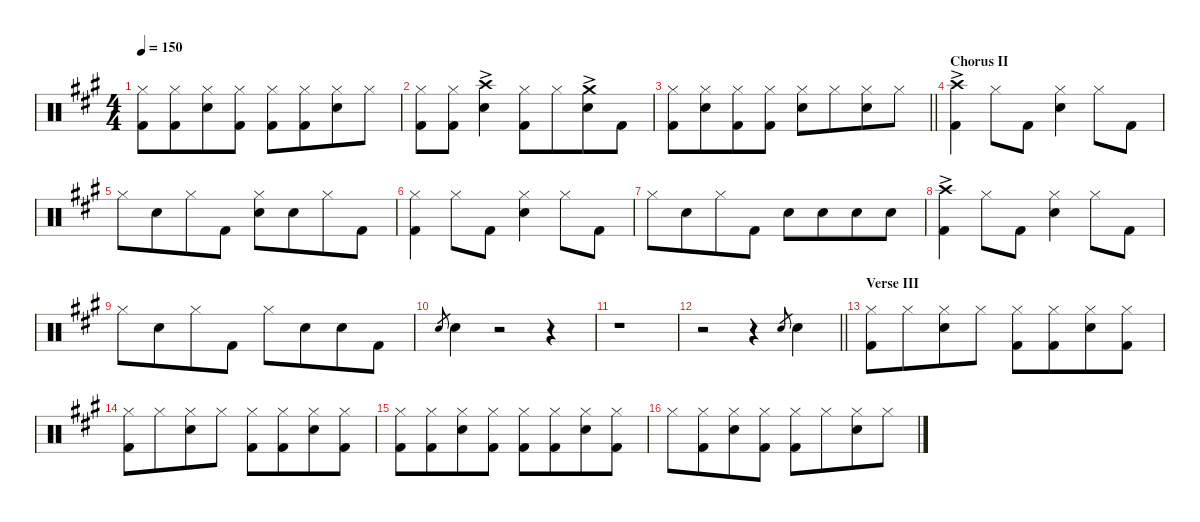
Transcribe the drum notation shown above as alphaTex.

\defaultSystemsLayout 4
\hideDynamics
\bracketExtendMode nobrackets
\singleTrackTrackNamePolicy hidden
\multiTrackTrackNamePolicy hidden
\firstSystemTrackNameMode fullname
\firstSystemTrackNameOrientation horizontal
\otherSystemsTrackNameOrientation horizontal
\track ("Drums" "drm.") {instrument percussion}
\staff {score}
\articulation defaults
\ts (4 4)
\tempo 150
\clef neutral
\ks a
("Hi-Hat (closed)"{acc forcenatural} "Kick (hit) 2"{acc forcenatural}).8{dy f beam Down} ("Hi-Hat (closed)"{acc forcenatural} "Kick (hit) 2"{acc forcenatural}).8{beam Down beam merge} ("Hi-Hat (closed)"{acc forcenatural} "Snare (hit) 2"{acc forcenatural}).8{beam Down} ("Hi-Hat (closed)"{acc forcenatural} "Kick (hit) 2"{acc forcenatural}).8{beam Down} ("Hi-Hat (closed)"{acc forcenatural} "Kick (hit) 2"{acc forcenatural}).8{beam Down} ("Hi-Hat (closed)"{acc forcenatural} "Kick (hit) 2"{acc forcenatural}).8{beam Down beam merge} ("Hi-Hat (closed)"{acc forcenatural} "Snare (hit) 2"{acc forcenatural}).8{beam Down} "Hi-Hat (closed)"{acc forcenatural}.8{beam Down} |
("Hi-Hat (closed)"{acc forcenatural} "Kick (hit) 2"{acc forcenatural}).8{beam Down} ("Hi-Hat (closed)"{acc forcenatural} "Kick (hit) 2"{acc forcenatural}).8{beam Down} ("Crash high (hit)"{ac acc forcenatural} "Snare (hit) 2"{acc forcenatural}).4{beam Down} ("Hi-Hat (closed)"{acc forcenatural} "Kick (hit) 2"{acc forcenatural}).8{beam Down} "Hi-Hat (closed)"{acc forcenatural}.8{beam Down beam merge} ("Crash medium (hit)"{ac acc forcenatural} "Snare (hit) 2"{acc forcenatural}).8{beam Down} "Kick (hit) 2"{acc forcenatural}.8{beam Down} |
\barLineRight lightlight
("Hi-Hat (closed)"{acc forcenatural} "Kick (hit) 2"{acc forcenatural}).8{beam Down} ("Hi-Hat (closed)"{acc forcenatural} "Snare (hit) 2"{acc forcenatural}).8{beam Down beam merge} ("Hi-Hat (closed)"{acc forcenatural} "Kick (hit) 2"{acc forcenatural}).8{beam Down} ("Hi-Hat (closed)"{acc forcenatural} "Kick (hit) 2"{acc forcenatural}).8{beam Down} ("Hi-Hat (closed)"{acc forcenatural} "Snare (hit) 2"{acc forcenatural}).8{beam Down} "Hi-Hat (closed)"{acc forcenatural}.8{beam Down beam merge} ("Hi-Hat (closed)"{acc forcenatural} "Snare (hit) 2"{acc forcenatural}).8{beam Down} "Hi-Hat (closed)"{acc forcenatural}.8{beam Down} |
\section ("" "Chorus II")
("Crash high (hit)"{ac acc forcenatural} "Kick (hit) 2"{acc forcenatural}).4{beam Down} "Hi-Hat (closed)"{acc forcenatural}.8{beam Down} "Kick (hit) 2"{acc forcenatural}.8{beam Down} ("Hi-Hat (closed)"{acc forcenatural} "Snare (hit) 2"{acc forcenatural}).4{beam Down} "Hi-Hat (closed)"{acc forcenatural}.8{beam Down} "Kick (hit) 2"{acc forcenatural}.8{beam Down} |
"Hi-Hat (closed)"{acc forcenatural}.8{beam Down} "Snare (hit) 2"{acc forcenatural}.8{beam Down beam merge} "Hi-Hat (closed)"{acc forcenatural}.8{beam Down} "Kick (hit) 2"{acc forcenatural}.8{beam Down} ("Hi-Hat (closed)"{acc forcenatural} "Snare (hit) 2"{acc forcenatural}).8{beam Down} "Snare (hit) 2"{acc forcenatural}.8{beam Down beam merge} "Hi-Hat (closed)"{acc forcenatural}.8{beam Down} "Kick (hit) 2"{acc forcenatural}.8{beam Down} |
("Hi-Hat (closed)"{acc forcenatural} "Kick (hit) 2"{acc forcenatural}).4{beam Down} "Hi-Hat (closed)"{acc forcenatural}.8{beam Down} "Kick (hit) 2"{acc forcenatural}.8{beam Down} ("Hi-Hat (closed)"{acc forcenatural} "Snare (hit) 2"{acc forcenatural}).4{beam Down} "Hi-Hat (closed)"{acc forcenatural}.8{beam Down} "Kick (hit) 2"{acc forcenatural}.8{beam Down} |
"Hi-Hat (closed)"{acc forcenatural}.8{beam Down} "Snare (hit) 2"{acc forcenatural}.8{beam Down beam merge} "Hi-Hat (closed)"{acc forcenatural}.8{beam Down} "Kick (hit) 2"{acc forcenatural}.8{beam Down} "Snare (hit) 2"{acc forcenatural}.8{beam Down} "Snare (hit) 2"{acc forcenatural}.8{beam Down beam merge} "Snare (hit) 2"{acc forcenatural}.8{beam Down} "Snare (hit) 2"{acc forcenatural}.8{beam Down} |
("Crash high (hit)"{ac acc forcenatural} "Kick (hit) 2"{acc forcenatural}).4{beam Down} "Hi-Hat (closed)"{acc forcenatural}.8{beam Down} "Kick (hit) 2"{acc forcenatural}.8{beam Down} ("Hi-Hat (closed)"{acc forcenatural} "Snare (hit) 2"{acc forcenatural}).4{beam Down} "Hi-Hat (closed)"{acc forcenatural}.8{beam Down} "Kick (hit) 2"{acc forcenatural}.8{beam Down} |
"Hi-Hat (closed)"{acc forcenatural}.8{beam Down} "Snare (hit) 2"{acc forcenatural}.8{beam Down beam merge} "Hi-Hat (closed)"{acc forcenatural}.8{beam Down} "Kick (hit) 2"{acc forcenatural}.8{beam Down} "Hi-Hat (closed)"{acc forcenatural}.8{beam Down} "Snare (hit) 2"{acc forcenatural}.8{beam Down beam merge} "Snare (hit) 2"{acc forcenatural}.8{beam Down} "Kick (hit) 2"{acc forcenatural}.8{beam Down} |
"Snare (hit) 2"{acc forcenatural}.8{gr dy mf beam Up} "Snare (hit) 2"{acc forcenatural}.4{dy f beam Down} r.2{beam Down} r.4{beam Down} |
r.1{beam Down} |
\barLineRight lightlight
r.2{beam Down} r.4{beam Down} "Snare (hit) 2"{acc forcenatural}.8{gr dy mf beam Up} "Snare (hit) 2"{acc forcenatural}.4{dy f beam Down} |
\section ("" "Verse III")
("Hi-Hat (closed)"{acc forcenatural} "Kick (hit) 2"{acc forcenatural}).8{beam Down} "Hi-Hat (closed)"{acc forcenatural}.8{beam Down beam merge} ("Hi-Hat (closed)"{acc forcenatural} "Snare (hit) 2"{acc forcenatural}).8{beam Down} "Hi-Hat (closed)"{acc forcenatural}.8{beam Down} ("Hi-Hat (closed)"{acc forcenatural} "Kick (hit) 2"{acc forcenatural}).8{beam Down} ("Hi-Hat (closed)"{acc forcenatural} "Kick (hit) 2"{acc forcenatural}).8{beam Down beam merge} ("Hi-Hat (closed)"{acc forcenatural} "Snare (hit) 2"{acc forcenatural}).8{beam Down} ("Hi-Hat (closed)"{acc forcenatural} "Kick (hit) 2"{acc forcenatural}).8{beam Down} |
("Hi-Hat (closed)"{acc forcenatural} "Kick (hit) 2"{acc forcenatural}).8{beam Down} "Hi-Hat (closed)"{acc forcenatural}.8{beam Down beam merge} ("Hi-Hat (closed)"{acc forcenatural} "Snare (hit) 2"{acc forcenatural}).8{beam Down} "Hi-Hat (closed)"{acc forcenatural}.8{beam Down} ("Hi-Hat (closed)"{acc forcenatural} "Kick (hit) 2"{acc forcenatural}).8{beam Down} ("Hi-Hat (closed)"{acc forcenatural} "Kick (hit) 2"{acc forcenatural}).8{beam Down beam merge} ("Hi-Hat (closed)"{acc forcenatural} "Snare (hit) 2"{acc forcenatural}).8{beam Down} ("Hi-Hat (closed)"{acc forcenatural} "Kick (hit) 2"{acc forcenatural}).8{beam Down} |
("Hi-Hat (closed)"{acc forcenatural} "Kick (hit) 2"{acc forcenatural}).8{beam Down} ("Hi-Hat (closed)"{acc forcenatural} "Kick (hit) 2"{acc forcenatural}).8{beam Down beam merge} ("Hi-Hat (closed)"{acc forcenatural} "Snare (hit) 2"{acc forcenatural}).8{beam Down} ("Hi-Hat (closed)"{acc forcenatural} "Kick (hit) 2"{acc forcenatural}).8{beam Down} ("Hi-Hat (closed)"{acc forcenatural} "Kick (hit) 2"{acc forcenatural}).8{beam Down} ("Hi-Hat (closed)"{acc forcenatural} "Kick (hit) 2"{acc forcenatural}).8{beam Down beam merge} ("Hi-Hat (closed)"{acc forcenatural} "Snare (hit) 2"{acc forcenatural}).8{beam Down} ("Hi-Hat (closed)"{acc forcenatural} "Kick (hit) 2"{acc forcenatural}).8{beam Down} |
"Hi-Hat (closed)"{acc forcenatural}.8{beam Down} ("Hi-Hat (closed)"{acc forcenatural} "Kick (hit) 2"{acc forcenatural}).8{beam Down beam merge} ("Hi-Hat (closed)"{acc forcenatural} "Snare (hit) 2"{acc forcenatural}).8{beam Down} ("Hi-Hat (closed)"{acc forcenatural} "Kick (hit) 2"{acc forcenatural}).8{beam Down} ("Hi-Hat (closed)"{acc forcenatural} "Kick (hit) 2"{acc forcenatural}).8{beam Down} "Hi-Hat (closed)"{acc forcenatural}.8{beam Down beam merge} ("Hi-Hat (closed)"{acc forcenatural} "Snare (hit) 2"{acc forcenatural}).8{beam Down} "Hi-Hat (closed)"{acc forcenatural}.8{beam Down}
